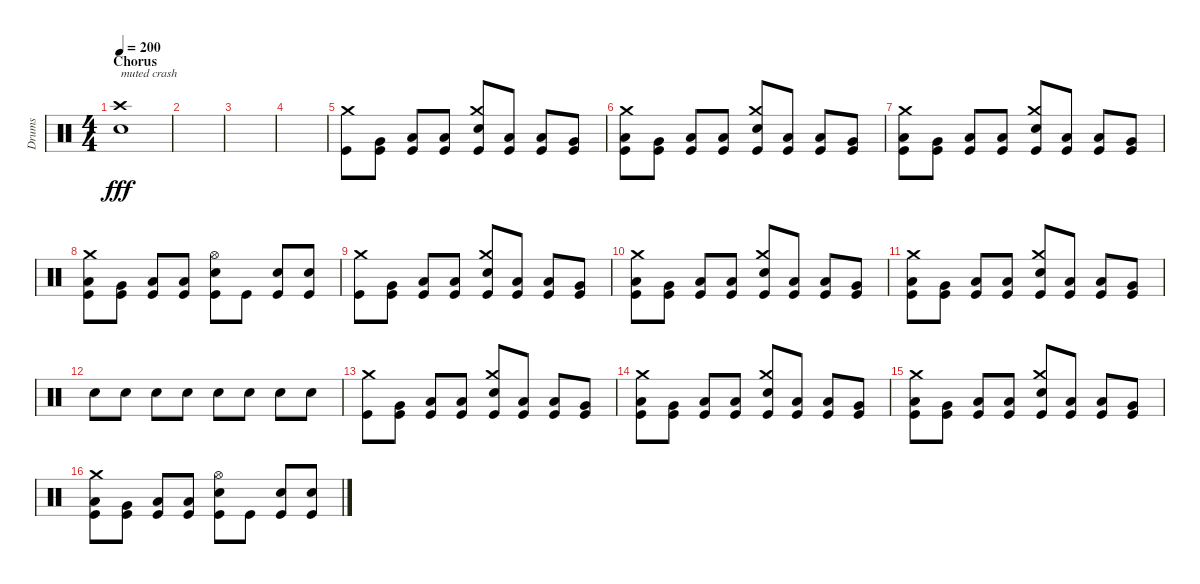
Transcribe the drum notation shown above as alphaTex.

\track ("Drums" "Drums") {instrument percussion}
\staff {score}
\articulation defaults
\ts (4 4)
\section ("" "Chorus")
\tempo 200
\clef neutral
\ks c
("Crash high (hit)" "Snare (hit) 2").1{txt "muted crash" dy fff} |
|
|
|
("Crash medium (hit)" "Kick (hit)").8 ("Very Low Tom (hit)" "Kick (hit)").8 ("Low Floor Tom (hit)" "Kick (hit)").8 ("Low Floor Tom (hit)" "Kick (hit)").8 ("Crash medium (hit)" "Snare (hit) 2" "Kick (hit)").8 ("Low Floor Tom (hit)" "Kick (hit)").8 ("Low Floor Tom (hit)" "Kick (hit)").8 ("Very Low Tom (hit)" "Kick (hit)").8 |
("Crash medium (hit)" "Low Floor Tom (hit)" "Kick (hit)").8 ("Very Low Tom (hit)" "Kick (hit)").8 ("Low Floor Tom (hit)" "Kick (hit)").8 ("Low Floor Tom (hit)" "Kick (hit)").8 ("Crash medium (hit)" "Snare (hit) 2" "Kick (hit)").8 ("Low Floor Tom (hit)" "Kick (hit)").8 ("Low Floor Tom (hit)" "Kick (hit)").8 ("Very Low Tom (hit)" "Kick (hit)").8 |
("Crash medium (hit)" "Low Floor Tom (hit)" "Kick (hit)").8 ("Very Low Tom (hit)" "Kick (hit)").8 ("Low Floor Tom (hit)" "Kick (hit)").8 ("Low Floor Tom (hit)" "Kick (hit)").8 ("Crash medium (hit)" "Snare (hit) 2" "Kick (hit)").8 ("Low Floor Tom (hit)" "Kick (hit)").8 ("Low Floor Tom (hit)" "Kick (hit)").8 ("Very Low Tom (hit)" "Kick (hit)").8 |
("Crash medium (hit)" "Low Floor Tom (hit)" "Kick (hit)").8 ("Very Low Tom (hit)" "Kick (hit)").8 ("Low Floor Tom (hit)" "Kick (hit)").8 ("Low Floor Tom (hit)" "Kick (hit)").8 ("Hi-Hat (open)" "Snare (hit) 2" "Kick (hit)").8 "Kick (hit)".8 ("Snare (hit) 2" "Kick (hit)").8 ("Snare (hit) 2" "Kick (hit)").8 |
("Crash medium (hit)" "Kick (hit)").8 ("Very Low Tom (hit)" "Kick (hit)").8 ("Low Floor Tom (hit)" "Kick (hit)").8 ("Low Floor Tom (hit)" "Kick (hit)").8 ("Crash medium (hit)" "Snare (hit) 2" "Kick (hit)").8 ("Low Floor Tom (hit)" "Kick (hit)").8 ("Low Floor Tom (hit)" "Kick (hit)").8 ("Very Low Tom (hit)" "Kick (hit)").8 |
("Crash medium (hit)" "Low Floor Tom (hit)" "Kick (hit)").8 ("Very Low Tom (hit)" "Kick (hit)").8 ("Low Floor Tom (hit)" "Kick (hit)").8 ("Low Floor Tom (hit)" "Kick (hit)").8 ("Crash medium (hit)" "Snare (hit) 2" "Kick (hit)").8 ("Low Floor Tom (hit)" "Kick (hit)").8 ("Low Floor Tom (hit)" "Kick (hit)").8 ("Very Low Tom (hit)" "Kick (hit)").8 |
("Crash medium (hit)" "Low Floor Tom (hit)" "Kick (hit)").8 ("Very Low Tom (hit)" "Kick (hit)").8 ("Low Floor Tom (hit)" "Kick (hit)").8 ("Low Floor Tom (hit)" "Kick (hit)").8 ("Crash medium (hit)" "Snare (hit) 2" "Kick (hit)").8 ("Low Floor Tom (hit)" "Kick (hit)").8 ("Low Floor Tom (hit)" "Kick (hit)").8 ("Very Low Tom (hit)" "Kick (hit)").8 |
"Snare (hit) 2".8 "Snare (hit) 2".8 "Snare (hit) 2".8 "Snare (hit) 2".8 "Snare (hit) 2".8 "Snare (hit) 2".8 "Snare (hit) 2".8 "Snare (hit) 2".8 |
("Crash medium (hit)" "Kick (hit)").8 ("Very Low Tom (hit)" "Kick (hit)").8 ("Low Floor Tom (hit)" "Kick (hit)").8 ("Low Floor Tom (hit)" "Kick (hit)").8 ("Crash medium (hit)" "Snare (hit) 2" "Kick (hit)").8 ("Low Floor Tom (hit)" "Kick (hit)").8 ("Low Floor Tom (hit)" "Kick (hit)").8 ("Very Low Tom (hit)" "Kick (hit)").8 |
("Crash medium (hit)" "Low Floor Tom (hit)" "Kick (hit)").8 ("Very Low Tom (hit)" "Kick (hit)").8 ("Low Floor Tom (hit)" "Kick (hit)").8 ("Low Floor Tom (hit)" "Kick (hit)").8 ("Crash medium (hit)" "Snare (hit) 2" "Kick (hit)").8 ("Low Floor Tom (hit)" "Kick (hit)").8 ("Low Floor Tom (hit)" "Kick (hit)").8 ("Very Low Tom (hit)" "Kick (hit)").8 |
("Crash medium (hit)" "Low Floor Tom (hit)" "Kick (hit)").8 ("Very Low Tom (hit)" "Kick (hit)").8 ("Low Floor Tom (hit)" "Kick (hit)").8 ("Low Floor Tom (hit)" "Kick (hit)").8 ("Crash medium (hit)" "Snare (hit) 2" "Kick (hit)").8 ("Low Floor Tom (hit)" "Kick (hit)").8 ("Low Floor Tom (hit)" "Kick (hit)").8 ("Very Low Tom (hit)" "Kick (hit)").8 |
("Crash medium (hit)" "Low Floor Tom (hit)" "Kick (hit)").8 ("Very Low Tom (hit)" "Kick (hit)").8 ("Low Floor Tom (hit)" "Kick (hit)").8 ("Low Floor Tom (hit)" "Kick (hit)").8 ("Hi-Hat (open)" "Snare (hit) 2" "Kick (hit)").8 "Kick (hit)".8 ("Snare (hit) 2" "Kick (hit)").8 ("Snare (hit) 2" "Kick (hit)").8
